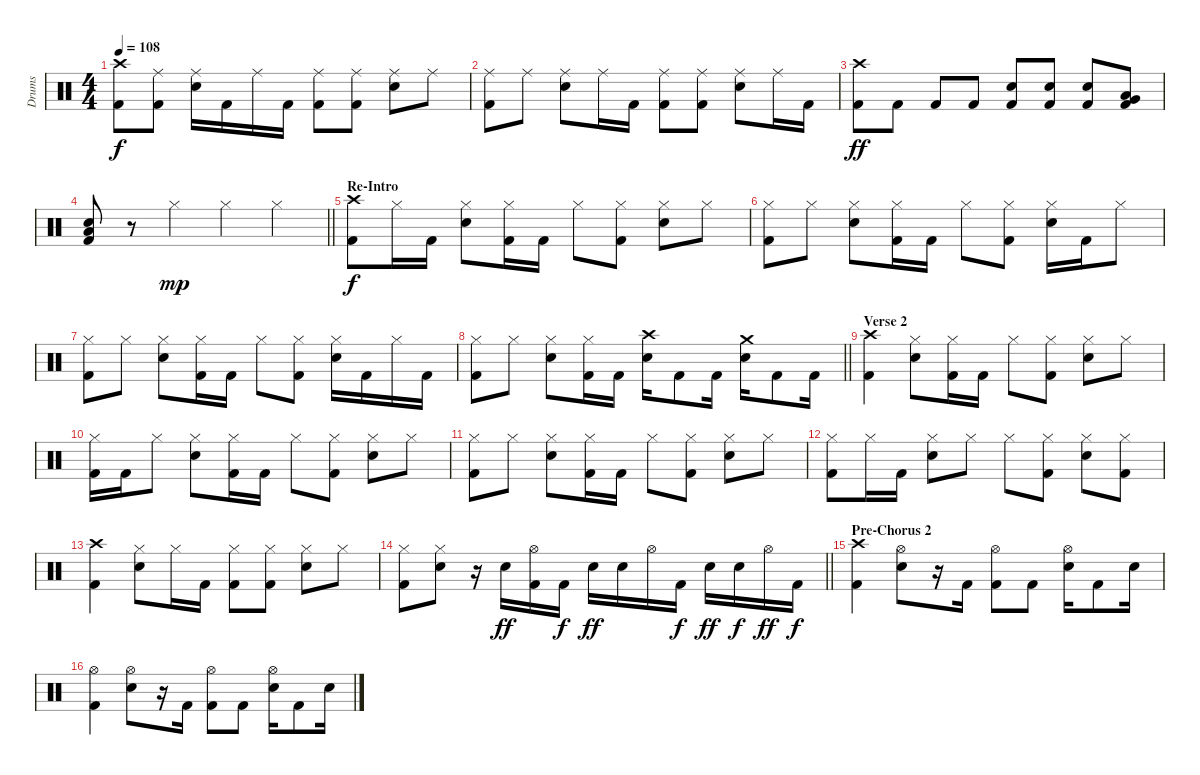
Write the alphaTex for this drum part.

\track ("Drums" "Drums") {instrument percussion}
\staff {score}
\articulation defaults
\ts (4 4)
\tempo 108
\clef neutral
\ks c
("Crash high (hit)" "Kick (hit) 2").8{dy f} ("Ride (middle)" "Kick (hit) 2").8 ("Ride (middle)" "Snare (hit) 2").16 "Kick (hit) 2".16 "Ride (middle)".16 "Kick (hit) 2".16 ("Ride (middle)" "Kick (hit) 2").8 ("Ride (middle)" "Kick (hit) 2").8 ("Ride (middle)" "Snare (hit) 2").8 "Ride (middle)".8 |
("Ride (middle)" "Kick (hit) 2").8 "Ride (middle)".8 ("Ride (middle)" "Snare (hit) 2").8 "Ride (middle)".16 "Kick (hit) 2".16 ("Ride (middle)" "Kick (hit) 2").8 ("Ride (middle)" "Kick (hit) 2").8 ("Ride (middle)" "Snare (hit) 2").8 "Ride (middle)".16 "Kick (hit) 2".16 |
("Crash high (hit)" "Kick (hit) 2").8{dy ff} "Kick (hit) 2".8 "Kick (hit) 2".8 "Kick (hit) 2".8 ("Snare (hit) 2" "Kick (hit) 2").8 ("Snare (hit) 2" "Kick (hit) 2").8 ("Snare (hit) 2" "Kick (hit) 2").8 ("Low Tom (hit)" "Very Low Tom (hit)" "Kick (hit) 2").8 |
\barLineRight lightlight
("Low Tom (hit)" "Snare (hit) 2" "Kick (hit) 2").8 r.8 "Hi-Hat (closed)".4{dy mp} "Hi-Hat (closed)".4 "Hi-Hat (closed)".4 |
\section ("" "Re-Intro")
("Crash high (hit)" "Kick (hit) 2").8{dy f} "Hi-Hat (closed)".16 "Kick (hit) 2".16 ("Hi-Hat (closed)" "Snare (hit) 2").8 ("Hi-Hat (closed)" "Kick (hit) 2").16 "Kick (hit) 2".16 "Hi-Hat (closed)".8 ("Hi-Hat (closed)" "Kick (hit) 2").8 ("Hi-Hat (closed)" "Snare (hit) 2").8 "Hi-Hat (closed)".8 |
("Hi-Hat (closed)" "Kick (hit) 2").8 "Hi-Hat (closed)".8 ("Hi-Hat (closed)" "Snare (hit) 2").8 ("Hi-Hat (closed)" "Kick (hit) 2").16 "Kick (hit) 2".16 "Hi-Hat (closed)".8 ("Hi-Hat (closed)" "Kick (hit) 2").8 ("Hi-Hat (closed)" "Snare (hit) 2").16 "Kick (hit) 2".16 "Hi-Hat (closed)".8 |
("Hi-Hat (closed)" "Kick (hit) 2").8 "Hi-Hat (closed)".8 ("Hi-Hat (closed)" "Snare (hit) 2").8 ("Hi-Hat (closed)" "Kick (hit) 2").16 "Kick (hit) 2".16 "Hi-Hat (closed)".8 ("Hi-Hat (closed)" "Kick (hit) 2").8 ("Hi-Hat (closed)" "Snare (hit) 2").16 "Kick (hit) 2".16 "Hi-Hat (closed)".16 "Kick (hit) 2".16 |
\barLineRight lightlight
("Hi-Hat (closed)" "Kick (hit) 2").8 "Hi-Hat (closed)".8 ("Hi-Hat (closed)" "Snare (hit) 2").8 ("Hi-Hat (closed)" "Kick (hit) 2").16 "Kick (hit) 2".16 ("Crash high (hit)" "Snare (hit) 2").16 "Kick (hit) 2".8 "Kick (hit) 2".16 ("Crash medium (hit)" "Snare (hit) 2").16 "Kick (hit) 2".8 "Kick (hit) 2".16 |
\section ("" "Verse 2")
("Crash high (hit)" "Kick (hit) 2").4 ("Hi-Hat (closed)" "Snare (hit) 2").8 ("Hi-Hat (closed)" "Kick (hit) 2").16 "Kick (hit) 2".16 "Hi-Hat (closed)".8 ("Hi-Hat (closed)" "Kick (hit) 2").8 ("Hi-Hat (closed)" "Snare (hit) 2").8 "Hi-Hat (closed)".8 |
("Hi-Hat (closed)" "Kick (hit) 2").16 "Kick (hit) 2".16 "Hi-Hat (closed)".8 ("Hi-Hat (closed)" "Snare (hit) 2").8 ("Hi-Hat (closed)" "Kick (hit) 2").16 "Kick (hit) 2".16 "Hi-Hat (closed)".8 ("Hi-Hat (closed)" "Kick (hit) 2").8 ("Hi-Hat (closed)" "Snare (hit) 2").8 "Hi-Hat (closed)".8 |
("Hi-Hat (closed)" "Kick (hit) 2").8 "Hi-Hat (closed)".8 ("Hi-Hat (closed)" "Snare (hit) 2").8 ("Hi-Hat (closed)" "Kick (hit) 2").16 "Kick (hit) 2".16 "Hi-Hat (closed)".8 ("Hi-Hat (closed)" "Kick (hit) 2").8 ("Hi-Hat (closed)" "Snare (hit) 2").8 "Hi-Hat (closed)".8 |
("Hi-Hat (closed)" "Kick (hit) 2").8 "Hi-Hat (closed)".16 "Kick (hit) 2".16 ("Hi-Hat (closed)" "Snare (hit) 2").8 "Hi-Hat (closed)".8 "Hi-Hat (closed)".8 ("Hi-Hat (closed)" "Kick (hit) 2").8 ("Hi-Hat (closed)" "Snare (hit) 2").8 ("Hi-Hat (closed)" "Kick (hit) 2").8 |
("Crash high (hit)" "Kick (hit) 2").4 ("Hi-Hat (closed)" "Snare (hit) 2").8 "Hi-Hat (closed)".16 "Kick (hit) 2".16 ("Hi-Hat (closed)" "Kick (hit) 2").8 ("Hi-Hat (closed)" "Kick (hit) 2").8 ("Hi-Hat (closed)" "Snare (hit) 2").8 "Hi-Hat (closed)".8 |
\barLineRight lightlight
("Hi-Hat (closed)" "Kick (hit) 2").8 ("Hi-Hat (closed)" "Snare (hit) 2").8 r.16 "Snare (hit) 2".16{dy ff} ("Hi-Hat (open)" "Kick (hit) 2").16 "Kick (hit) 2".16{dy f} "Snare (hit) 2".16{dy ff} "Snare (hit) 2".16 "Hi-Hat (open)".16 "Kick (hit) 2".16{dy f} "Snare (hit) 2".16{dy ff} "Snare (hit) 2".16{dy f} "Hi-Hat (open)".16{dy ff} "Kick (hit) 2".16{dy f} |
\section ("" "Pre-Chorus 2")
("Crash high (hit)" "Kick (hit) 2").4 ("Hi-Hat (open)" "Snare (hit) 2").8 r.16 "Kick (hit) 2".16 ("Hi-Hat (open)" "Kick (hit) 2").8 "Kick (hit) 2".8 ("Hi-Hat (open)" "Snare (hit) 2").16 "Kick (hit) 2".8 "Snare (hit) 2".16 |
("Hi-Hat (open)" "Kick (hit) 2").4 ("Hi-Hat (open)" "Snare (hit) 2").8 r.16 "Kick (hit) 2".16 ("Hi-Hat (open)" "Kick (hit) 2").8 "Kick (hit) 2".8 ("Hi-Hat (open)" "Snare (hit) 2").16 "Kick (hit) 2".8 "Snare (hit) 2".16
